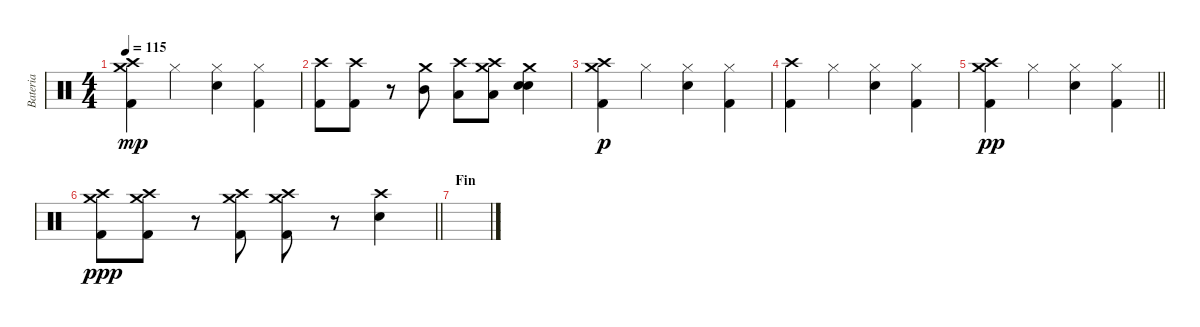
\track ("Bateria" "Bateria") {instrument percussion}
\staff {score}
\articulation defaults
\ts (4 4)
\tempo 115
\clef neutral
\ks c
("Crash medium (hit)" "Kick (hit) 2" "Crash high (hit)").4{dy mp} "Hi-Hat (closed)".4 ("Hi-Hat (closed)" "Snare (hit) 2").4 ("Hi-Hat (closed)" "Kick (hit) 2").4 |
("Kick (hit) 2" "Crash high (hit)").8 ("Kick (hit) 2" "Crash high (hit)").8 r.8 ("Mid Tom (hit)" "Crash medium (hit)").8 ("Low Tom (hit)" "Crash high (hit)").8 ("Low Tom (hit)" "Crash high (hit)" "Crash medium (hit)").8 ("Crash medium (hit)" "Snare (hit) 2" "Snare (hit) 2").4 |
("Crash medium (hit)" "Kick (hit) 2" "Crash high (hit)").4{dy p} "Hi-Hat (closed)".4 ("Hi-Hat (closed)" "Snare (hit) 2").4 ("Hi-Hat (closed)" "Kick (hit) 2").4 |
("Crash high (hit)" "Kick (hit) 2").4 "Hi-Hat (closed)".4 ("Hi-Hat (closed)" "Snare (hit) 2").4 ("Hi-Hat (closed)" "Kick (hit) 2").4 |
\barLineRight lightlight
("Crash medium (hit)" "Kick (hit) 2" "Crash high (hit)").4{dy pp} "Hi-Hat (closed)".4 ("Hi-Hat (closed)" "Snare (hit) 2").4 ("Hi-Hat (closed)" "Kick (hit) 2").4 |
\section ("" "")
\barLineRight lightlight
("Crash high (hit)" "Kick (hit) 2" "Crash medium (hit)").8{dy ppp} ("Crash high (hit)" "Kick (hit) 2" "Crash medium (hit)").8 r.8 ("Crash high (hit)" "Kick (hit) 2" "Crash medium (hit)").8 ("Crash high (hit)" "Kick (hit) 2" "Crash medium (hit)").8 r.8 ("Crash high (hit)" "Snare (hit) 2").4 |
\section ("" "Fin")
